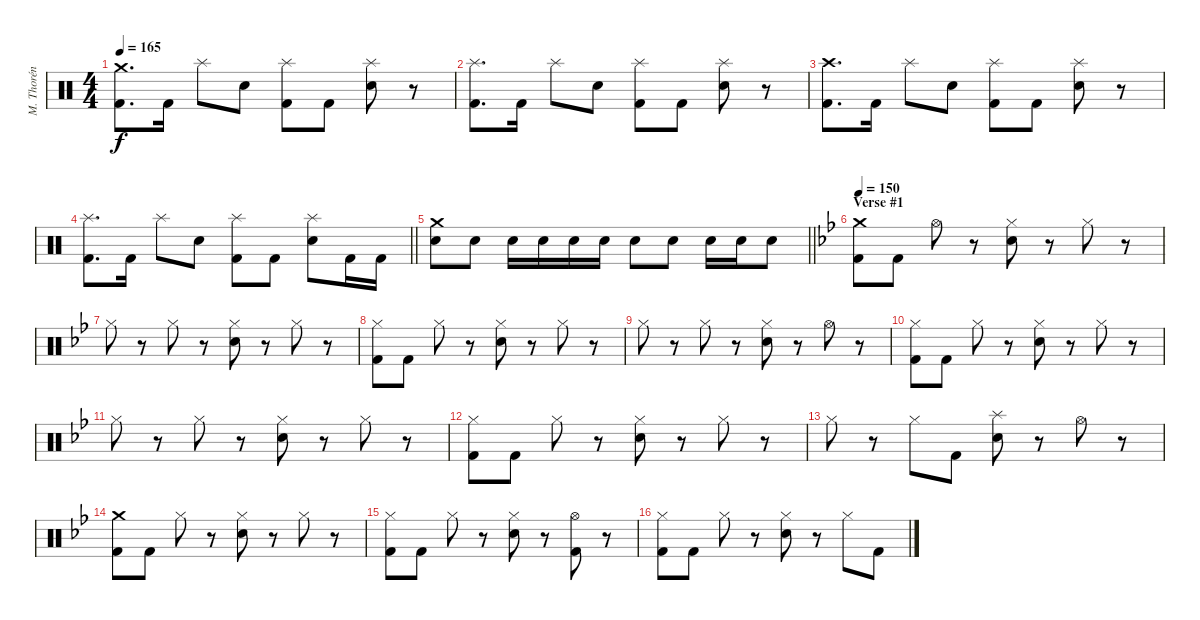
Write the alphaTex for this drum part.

\track ("M. Thorén (Drums)" "M. Thorén ") {instrument percussion}
\staff {score}
\articulation defaults
\ts (4 4)
\tempo 165
\clef neutral
\ks aminor
("Crash medium (hit)" "Kick (hit) 2").8{d dy f} "Kick (hit) 2".16 "Splash (hit)".8 "Electric Snare (hit)".8 ("Splash (hit)" "Kick (hit) 2").8 "Kick (hit) 2".8 ("Splash (hit)" "Electric Snare (hit)").8 r.8 |
("Splash (hit)" "Kick (hit) 2").8{d} "Kick (hit) 2".16 "Splash (hit)".8 "Electric Snare (hit)".8 ("Splash (hit)" "Kick (hit) 2").8 "Kick (hit) 2".8 ("Splash (hit)" "Electric Snare (hit)").8 r.8 |
("Crash high (hit)" "Kick (hit) 2").8{d} "Kick (hit) 2".16 "Splash (hit)".8 "Electric Snare (hit)".8 ("Splash (hit)" "Kick (hit) 2").8 "Kick (hit) 2".8 ("Splash (hit)" "Electric Snare (hit)").8 r.8 |
\barLineRight lightlight
("Splash (hit)" "Kick (hit) 2").8{d} "Kick (hit) 2".16 "Splash (hit)".8 "Electric Snare (hit)".8 ("Splash (hit)" "Kick (hit) 2").8 "Kick (hit) 2".8 ("Splash (hit)" "Electric Snare (hit)").8 "Kick (hit) 2".16 "Kick (hit) 2".16 |
\barLineRight lightlight
("Crash medium (hit)" "Electric Snare (hit)").8 "Electric Snare (hit)".8 "Electric Snare (hit)".16 "Electric Snare (hit)".16 "Electric Snare (hit)".16 "Electric Snare (hit)".16 "Electric Snare (hit)".8 "Electric Snare (hit)".8 "Electric Snare (hit)".16 "Electric Snare (hit)".16 "Electric Snare (hit)".8 |
\section ("" "Verse #1")
\tempo 150
\ks gminor
("Crash medium (hit)" "Kick (hit) 2").8 "Kick (hit) 2".8 "Hi-Hat (open)".8 r.8 ("Hi-Hat (closed)" "Electric Snare (hit)").8 r.8 "Hi-Hat (closed)".8 r.8 |
"Hi-Hat (closed)".8 r.8 "Hi-Hat (closed)".8 r.8 ("Hi-Hat (closed)" "Electric Snare (hit)").8 r.8 "Hi-Hat (closed)".8 r.8 |
("Hi-Hat (closed)" "Kick (hit) 2").8 "Kick (hit) 2".8 "Hi-Hat (closed)".8 r.8 ("Hi-Hat (closed)" "Electric Snare (hit)").8 r.8 "Hi-Hat (closed)".8 r.8 |
"Hi-Hat (closed)".8 r.8 "Hi-Hat (closed)".8 r.8 ("Hi-Hat (closed)" "Electric Snare (hit)").8 r.8 "Hi-Hat (open)".8 r.8 |
("Hi-Hat (closed)" "Kick (hit) 2").8 "Kick (hit) 2".8 "Hi-Hat (closed)".8 r.8 ("Hi-Hat (closed)" "Electric Snare (hit)").8 r.8 "Hi-Hat (closed)".8 r.8 |
"Hi-Hat (closed)".8 r.8 "Hi-Hat (closed)".8 r.8 ("Hi-Hat (closed)" "Electric Snare (hit)").8 r.8 "Hi-Hat (closed)".8 r.8 |
("Hi-Hat (closed)" "Kick (hit) 2").8 "Kick (hit) 2".8 "Hi-Hat (closed)".8 r.8 ("Hi-Hat (closed)" "Electric Snare (hit)").8 r.8 "Hi-Hat (closed)".8 r.8 |
"Hi-Hat (closed)".8 r.8 "Hi-Hat (closed)".8 "Kick (hit) 2".8 ("Splash (hit)" "Electric Snare (hit)").8 r.8 "Hi-Hat (open)".8 r.8 |
("Crash medium (hit)" "Kick (hit) 2").8 "Kick (hit) 2".8 "Hi-Hat (closed)".8 r.8 ("Hi-Hat (closed)" "Electric Snare (hit)").8 r.8 "Hi-Hat (closed)".8 r.8 |
("Hi-Hat (closed)" "Kick (hit) 2").8 "Kick (hit) 2".8 "Hi-Hat (closed)".8 r.8 ("Hi-Hat (closed)" "Electric Snare (hit)").8 r.8 ("Hi-Hat (open)" "Kick (hit) 2").8 r.8 |
("Hi-Hat (closed)" "Kick (hit) 2").8 "Kick (hit) 2".8 "Hi-Hat (closed)".8 r.8 ("Hi-Hat (closed)" "Electric Snare (hit)").8 r.8 "Hi-Hat (closed)".8 "Kick (hit) 2".8
